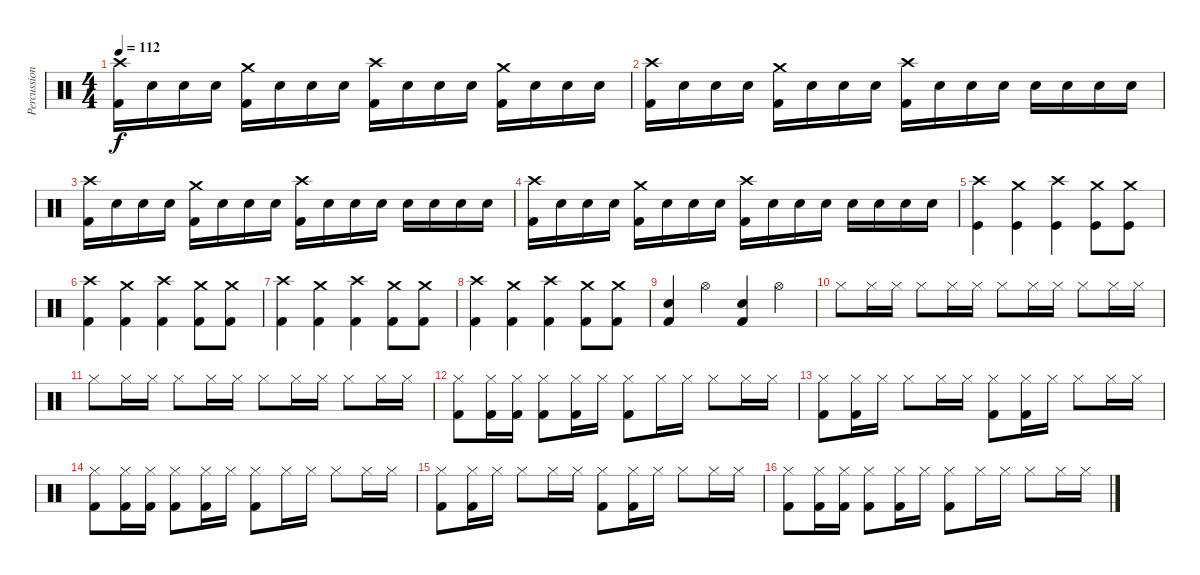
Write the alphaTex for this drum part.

\track ("Percussion" "Percussion") {instrument percussion}
\staff {score}
\articulation defaults
\ts (4 4)
\tempo 112
\clef neutral
\ks c
("Crash high (hit)" "Kick (hit) 2").16{dy f} "Snare (hit) 2".16 "Snare (hit) 2".16 "Snare (hit) 2".16 ("Crash medium (hit)" "Kick (hit) 2").16 "Snare (hit) 2".16 "Snare (hit) 2".16 "Snare (hit) 2".16 ("Crash high (hit)" "Kick (hit) 2").16 "Snare (hit) 2".16 "Snare (hit) 2".16 "Snare (hit) 2".16 ("Crash medium (hit)" "Kick (hit) 2").16 "Snare (hit) 2".16 "Snare (hit) 2".16 "Snare (hit) 2".16 |
("Crash high (hit)" "Kick (hit) 2").16 "Snare (hit) 2".16 "Snare (hit) 2".16 "Snare (hit) 2".16 ("Crash medium (hit)" "Kick (hit) 2").16 "Snare (hit) 2".16 "Snare (hit) 2".16 "Snare (hit) 2".16 ("Crash high (hit)" "Kick (hit) 2").16 "Snare (hit) 2".16 "Snare (hit) 2".16 "Snare (hit) 2".16 "Snare (hit) 2".16 "Snare (hit) 2".16 "Snare (hit) 2".16 "Snare (hit) 2".16 |
("Crash high (hit)" "Kick (hit) 2").16 "Snare (hit) 2".16 "Snare (hit) 2".16 "Snare (hit) 2".16 ("Crash medium (hit)" "Kick (hit) 2").16 "Snare (hit) 2".16 "Snare (hit) 2".16 "Snare (hit) 2".16 ("Crash high (hit)" "Kick (hit) 2").16 "Snare (hit) 2".16 "Snare (hit) 2".16 "Snare (hit) 2".16 "Snare (hit) 2".16 "Snare (hit) 2".16 "Snare (hit) 2".16 "Snare (hit) 2".16 |
("Crash high (hit)" "Kick (hit) 2").16 "Snare (hit) 2".16 "Snare (hit) 2".16 "Snare (hit) 2".16 ("Crash medium (hit)" "Kick (hit) 2").16 "Snare (hit) 2".16 "Snare (hit) 2".16 "Snare (hit) 2".16 ("Crash high (hit)" "Kick (hit) 2").16 "Snare (hit) 2".16 "Snare (hit) 2".16 "Snare (hit) 2".16 "Snare (hit) 2".16 "Snare (hit) 2".16 "Snare (hit) 2".16 "Snare (hit) 2".16 |
("Crash high (hit)" "Kick (hit)").4 ("Crash medium (hit)" "Kick (hit)").4 ("Crash high (hit)" "Kick (hit)").4 ("Crash medium (hit)" "Kick (hit)").8 ("Crash medium (hit)" "Kick (hit)").8 |
("Crash high (hit)" "Kick (hit) 2").4 ("Crash medium (hit)" "Kick (hit) 2").4 ("Crash high (hit)" "Kick (hit) 2").4 ("Crash medium (hit)" "Kick (hit) 2").8 ("Crash medium (hit)" "Kick (hit) 2").8 |
("Crash high (hit)" "Kick (hit) 2").4 ("Crash medium (hit)" "Kick (hit) 2").4 ("Crash high (hit)" "Kick (hit) 2").4 ("Crash medium (hit)" "Kick (hit) 2").8 ("Crash medium (hit)" "Kick (hit) 2").8 |
("Crash high (hit)" "Kick (hit) 2").4 ("Crash medium (hit)" "Kick (hit) 2").4 ("Crash high (hit)" "Kick (hit) 2").4 ("Crash medium (hit)" "Kick (hit) 2").8 ("Crash medium (hit)" "Kick (hit) 2").8 |
("Snare (hit) 2" "Kick (hit) 2").4 "Hi-Hat (open)".4 ("Snare (hit) 2" "Kick (hit) 2").4 "Hi-Hat (open)".4 |
"Hi-Hat (closed)".8 "Hi-Hat (closed)".16 "Hi-Hat (closed)".16 "Hi-Hat (closed)".8 "Hi-Hat (closed)".16 "Hi-Hat (closed)".16 "Hi-Hat (closed)".8 "Hi-Hat (closed)".16 "Hi-Hat (closed)".16 "Hi-Hat (closed)".8 "Hi-Hat (closed)".16 "Hi-Hat (closed)".16 |
"Hi-Hat (closed)".8 "Hi-Hat (closed)".16 "Hi-Hat (closed)".16 "Hi-Hat (closed)".8 "Hi-Hat (closed)".16 "Hi-Hat (closed)".16 "Hi-Hat (closed)".8 "Hi-Hat (closed)".16 "Hi-Hat (closed)".16 "Hi-Hat (closed)".8 "Hi-Hat (closed)".16 "Hi-Hat (closed)".16 |
("Kick (hit) 2" "Hi-Hat (closed)").8 ("Kick (hit) 2" "Hi-Hat (closed)").16 ("Kick (hit) 2" "Hi-Hat (closed)").16 ("Kick (hit) 2" "Hi-Hat (closed)").8 ("Kick (hit) 2" "Hi-Hat (closed)").16 "Hi-Hat (closed)".16 ("Kick (hit) 2" "Hi-Hat (closed)").8 "Hi-Hat (closed)".16 "Hi-Hat (closed)".16 "Hi-Hat (closed)".8 "Hi-Hat (closed)".16 "Hi-Hat (closed)".16 |
("Kick (hit) 2" "Hi-Hat (closed)").8 ("Kick (hit) 2" "Hi-Hat (closed)").16 "Hi-Hat (closed)".16 "Hi-Hat (closed)".8 "Hi-Hat (closed)".16 "Hi-Hat (closed)".16 ("Kick (hit) 2" "Hi-Hat (closed)").8 ("Kick (hit) 2" "Hi-Hat (closed)").16 "Hi-Hat (closed)".16 "Hi-Hat (closed)".8 "Hi-Hat (closed)".16 "Hi-Hat (closed)".16 |
("Kick (hit) 2" "Hi-Hat (closed)").8 ("Kick (hit) 2" "Hi-Hat (closed)").16 ("Kick (hit) 2" "Hi-Hat (closed)").16 ("Kick (hit) 2" "Hi-Hat (closed)").8 ("Kick (hit) 2" "Hi-Hat (closed)").16 "Hi-Hat (closed)".16 ("Kick (hit) 2" "Hi-Hat (closed)").8 "Hi-Hat (closed)".16 "Hi-Hat (closed)".16 "Hi-Hat (closed)".8 "Hi-Hat (closed)".16 "Hi-Hat (closed)".16 |
("Kick (hit) 2" "Hi-Hat (closed)").8 ("Kick (hit) 2" "Hi-Hat (closed)").16 "Hi-Hat (closed)".16 "Hi-Hat (closed)".8 "Hi-Hat (closed)".16 "Hi-Hat (closed)".16 ("Kick (hit) 2" "Hi-Hat (closed)").8 ("Kick (hit) 2" "Hi-Hat (closed)").16 "Hi-Hat (closed)".16 "Hi-Hat (closed)".8 "Hi-Hat (closed)".16 "Hi-Hat (closed)".16 |
("Kick (hit) 2" "Hi-Hat (closed)").8 ("Kick (hit) 2" "Hi-Hat (closed)").16 ("Kick (hit) 2" "Hi-Hat (closed)").16 ("Kick (hit) 2" "Hi-Hat (closed)").8 ("Kick (hit) 2" "Hi-Hat (closed)").16 "Hi-Hat (closed)".16 ("Kick (hit) 2" "Hi-Hat (closed)").8 "Hi-Hat (closed)".16 "Hi-Hat (closed)".16 "Hi-Hat (closed)".8 "Hi-Hat (closed)".16 "Hi-Hat (closed)".16
